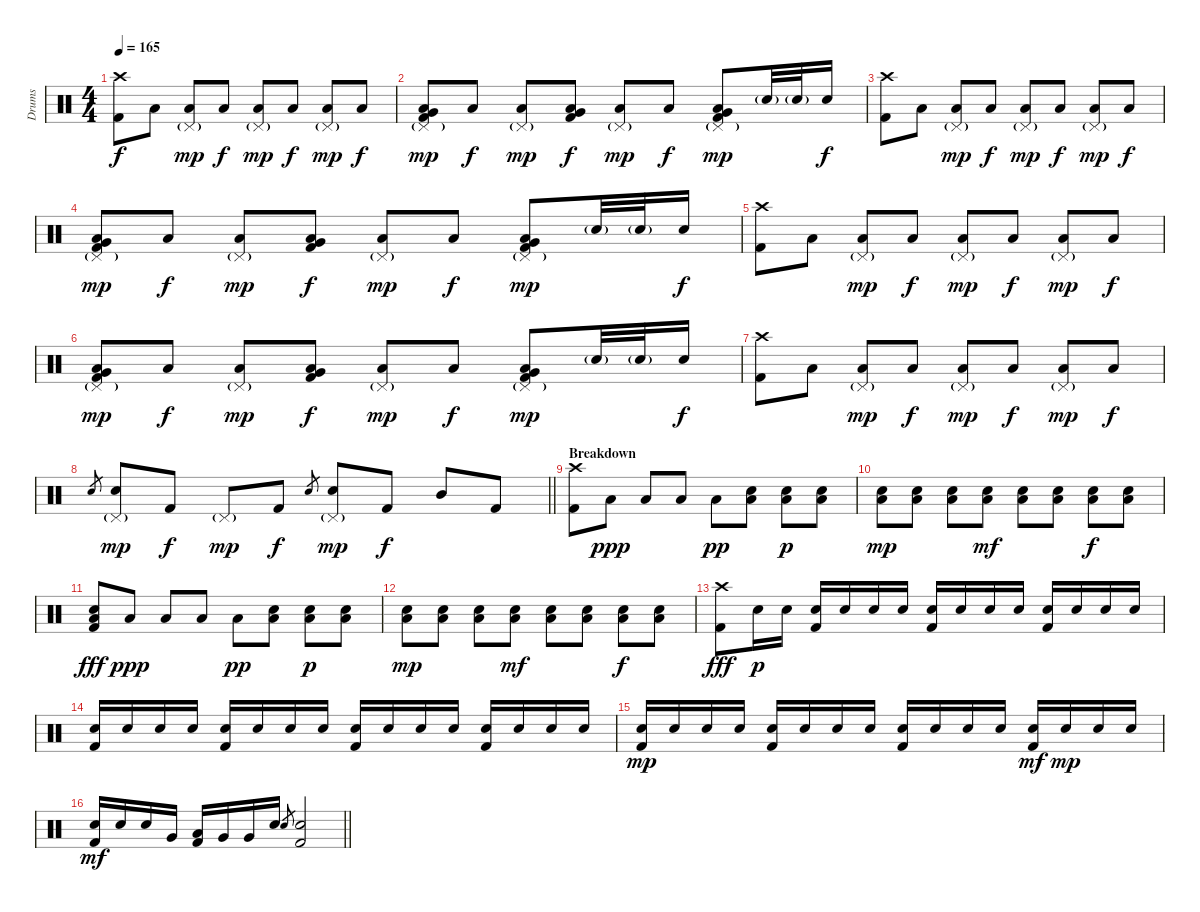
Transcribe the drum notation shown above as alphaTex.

\track ("Drums" "Drums") {instrument percussion}
\staff {score}
\articulation defaults
\ts (4 4)
\section ("" "")
\tempo 165
\clef neutral
\ks c
("Crash high (hit)" "Kick (hit) 2").8{dy f} "Low Floor Tom (hit)".8 ("Pedal Hi-Hat (hit)"{g} "Low Floor Tom (hit)").8{dy mp} "Low Floor Tom (hit)".8{dy f} ("Pedal Hi-Hat (hit)"{g} "Low Floor Tom (hit)").8{dy mp} "Low Floor Tom (hit)".8{dy f} ("Pedal Hi-Hat (hit)"{g} "Low Floor Tom (hit)").8{dy mp} "Low Floor Tom (hit)".8{dy f} |
("Pedal Hi-Hat (hit)"{g} "Very Low Tom (hit)" "Low Floor Tom (hit)" "Kick (hit) 2").8{dy mp} "Low Floor Tom (hit)".8{dy f} ("Pedal Hi-Hat (hit)"{g} "Low Floor Tom (hit)").8{dy mp} ("Very Low Tom (hit)" "Low Floor Tom (hit)" "Kick (hit) 2").8{dy f} ("Pedal Hi-Hat (hit)"{g} "Low Floor Tom (hit)").8{dy mp} "Low Floor Tom (hit)".8{dy f} ("Pedal Hi-Hat (hit)"{g} "Very Low Tom (hit)" "Low Floor Tom (hit)" "Kick (hit) 2").8{dy mp} "Electric Snare (hit)"{g}.32 "Electric Snare (hit)"{g}.32 "Electric Snare (hit)".16{dy f} |
("Crash high (hit)" "Kick (hit) 2").8 "Low Floor Tom (hit)".8 ("Pedal Hi-Hat (hit)"{g} "Low Floor Tom (hit)").8{dy mp} "Low Floor Tom (hit)".8{dy f} ("Pedal Hi-Hat (hit)"{g} "Low Floor Tom (hit)").8{dy mp} "Low Floor Tom (hit)".8{dy f} ("Pedal Hi-Hat (hit)"{g} "Low Floor Tom (hit)").8{dy mp} "Low Floor Tom (hit)".8{dy f} |
("Pedal Hi-Hat (hit)"{g} "Very Low Tom (hit)" "Low Floor Tom (hit)" "Kick (hit) 2").8{dy mp} "Low Floor Tom (hit)".8{dy f} ("Pedal Hi-Hat (hit)"{g} "Low Floor Tom (hit)").8{dy mp} ("Very Low Tom (hit)" "Low Floor Tom (hit)" "Kick (hit) 2").8{dy f} ("Pedal Hi-Hat (hit)"{g} "Low Floor Tom (hit)").8{dy mp} "Low Floor Tom (hit)".8{dy f} ("Pedal Hi-Hat (hit)"{g} "Very Low Tom (hit)" "Low Floor Tom (hit)" "Kick (hit) 2").8{dy mp} "Electric Snare (hit)"{g}.32 "Electric Snare (hit)"{g}.32 "Electric Snare (hit)".16{dy f} |
("Crash high (hit)" "Kick (hit) 2").8 "Low Floor Tom (hit)".8 ("Pedal Hi-Hat (hit)"{g} "Low Floor Tom (hit)").8{dy mp} "Low Floor Tom (hit)".8{dy f} ("Pedal Hi-Hat (hit)"{g} "Low Floor Tom (hit)").8{dy mp} "Low Floor Tom (hit)".8{dy f} ("Pedal Hi-Hat (hit)"{g} "Low Floor Tom (hit)").8{dy mp} "Low Floor Tom (hit)".8{dy f} |
("Pedal Hi-Hat (hit)"{g} "Very Low Tom (hit)" "Low Floor Tom (hit)" "Kick (hit) 2").8{dy mp} "Low Floor Tom (hit)".8{dy f} ("Pedal Hi-Hat (hit)"{g} "Low Floor Tom (hit)").8{dy mp} ("Very Low Tom (hit)" "Low Floor Tom (hit)" "Kick (hit) 2").8{dy f} ("Pedal Hi-Hat (hit)"{g} "Low Floor Tom (hit)").8{dy mp} "Low Floor Tom (hit)".8{dy f} ("Pedal Hi-Hat (hit)"{g} "Very Low Tom (hit)" "Low Floor Tom (hit)" "Kick (hit) 2").8{dy mp} "Electric Snare (hit)"{g}.32 "Electric Snare (hit)"{g}.32 "Electric Snare (hit)".16{dy f} |
("Crash high (hit)" "Kick (hit) 2").8 "Low Floor Tom (hit)".8 ("Pedal Hi-Hat (hit)"{g} "Low Floor Tom (hit)").8{dy mp} "Low Floor Tom (hit)".8{dy f} ("Pedal Hi-Hat (hit)"{g} "Low Floor Tom (hit)").8{dy mp} "Low Floor Tom (hit)".8{dy f} ("Pedal Hi-Hat (hit)"{g} "Low Floor Tom (hit)").8{dy mp} "Low Floor Tom (hit)".8{dy f} |
\barLineRight lightlight "Electric Snare (hit)".8{gr}
("Pedal Hi-Hat (hit)"{g} "Electric Snare (hit)").8{dy mp} "Kick (hit) 2".8{dy f} "Pedal Hi-Hat (hit)"{g}.8{dy mp} "Kick (hit) 2".8{dy f} "Electric Snare (hit)".8{gr} ("Pedal Hi-Hat (hit)"{g} "Electric Snare (hit)").8{dy mp} "Kick (hit) 2".8{dy f} "Mid Tom (hit)".8 "Kick (hit) 2".8 |
\section ("" "Breakdown")
("Crash high (hit)" "Kick (hit) 2").8 "Low Floor Tom (hit)".8{dy ppp} "Low Floor Tom (hit)".8 "Low Floor Tom (hit)".8 "Low Floor Tom (hit)".8{dy pp} ("Electric Snare (hit)" "Low Floor Tom (hit)").8 ("Electric Snare (hit)" "Low Floor Tom (hit)").8{dy p} ("Electric Snare (hit)" "Low Floor Tom (hit)").8 |
("Electric Snare (hit)" "Low Floor Tom (hit)").8{dy mp} ("Electric Snare (hit)" "Low Floor Tom (hit)").8 ("Electric Snare (hit)" "Low Floor Tom (hit)").8 ("Electric Snare (hit)" "Low Floor Tom (hit)").8{dy mf} ("Electric Snare (hit)" "Low Floor Tom (hit)").8 ("Electric Snare (hit)" "Low Floor Tom (hit)").8 ("Electric Snare (hit)" "Low Floor Tom (hit)").8{dy f} ("Electric Snare (hit)" "Low Floor Tom (hit)").8 |
("Electric Snare (hit)" "Low Floor Tom (hit)" "Kick (hit) 2").8{dy fff} "Low Floor Tom (hit)".8{dy ppp} "Low Floor Tom (hit)".8 "Low Floor Tom (hit)".8 "Low Floor Tom (hit)".8{dy pp} ("Electric Snare (hit)" "Low Floor Tom (hit)").8 ("Electric Snare (hit)" "Low Floor Tom (hit)").8{dy p} ("Electric Snare (hit)" "Low Floor Tom (hit)").8 |
("Electric Snare (hit)" "Low Floor Tom (hit)").8{dy mp} ("Electric Snare (hit)" "Low Floor Tom (hit)").8 ("Electric Snare (hit)" "Low Floor Tom (hit)").8 ("Electric Snare (hit)" "Low Floor Tom (hit)").8{dy mf} ("Electric Snare (hit)" "Low Floor Tom (hit)").8 ("Electric Snare (hit)" "Low Floor Tom (hit)").8 ("Electric Snare (hit)" "Low Floor Tom (hit)").8{dy f} ("Electric Snare (hit)" "Low Floor Tom (hit)").8 |
("Crash high (hit)" "Kick (hit) 2").8{dy fff} "Electric Snare (hit)".16{dy p} "Electric Snare (hit)".16 ("Electric Snare (hit)" "Kick (hit) 2").16 "Electric Snare (hit)".16 "Electric Snare (hit)".16 "Electric Snare (hit)".16 ("Electric Snare (hit)" "Kick (hit) 2").16 "Electric Snare (hit)".16 "Electric Snare (hit)".16 "Electric Snare (hit)".16 ("Electric Snare (hit)" "Kick (hit) 2").16 "Electric Snare (hit)".16 "Electric Snare (hit)".16 "Electric Snare (hit)".16 |
("Electric Snare (hit)" "Kick (hit) 2").16 "Electric Snare (hit)".16 "Electric Snare (hit)".16 "Electric Snare (hit)".16 ("Electric Snare (hit)" "Kick (hit) 2").16 "Electric Snare (hit)".16 "Electric Snare (hit)".16 "Electric Snare (hit)".16 ("Electric Snare (hit)" "Kick (hit) 2").16 "Electric Snare (hit)".16 "Electric Snare (hit)".16 "Electric Snare (hit)".16 ("Electric Snare (hit)" "Kick (hit) 2").16 "Electric Snare (hit)".16 "Electric Snare (hit)".16 "Electric Snare (hit)".16 |
("Electric Snare (hit)" "Kick (hit) 2").16{dy mp} "Electric Snare (hit)".16 "Electric Snare (hit)".16 "Electric Snare (hit)".16 ("Electric Snare (hit)" "Kick (hit) 2").16 "Electric Snare (hit)".16 "Electric Snare (hit)".16 "Electric Snare (hit)".16 ("Electric Snare (hit)" "Kick (hit) 2").16 "Electric Snare (hit)".16 "Electric Snare (hit)".16 "Electric Snare (hit)".16 ("Electric Snare (hit)" "Kick (hit) 2").16{dy mf} "Electric Snare (hit)".16{dy mp} "Electric Snare (hit)".16 "Electric Snare (hit)".16 |
\barLineRight lightlight
("Electric Snare (hit)" "Kick (hit) 2").16{dy mf} "Electric Snare (hit)".16 "Electric Snare (hit)".16 "Very Low Tom (hit)".16 ("Low Tom (hit)" "Kick (hit) 2").16 "Very Low Tom (hit)".16 "Very Low Tom (hit)".16 "Electric Snare (hit)".16 "Electric Snare (hit)".8{gr} ("Electric Snare (hit)" "Kick (hit) 2").2
